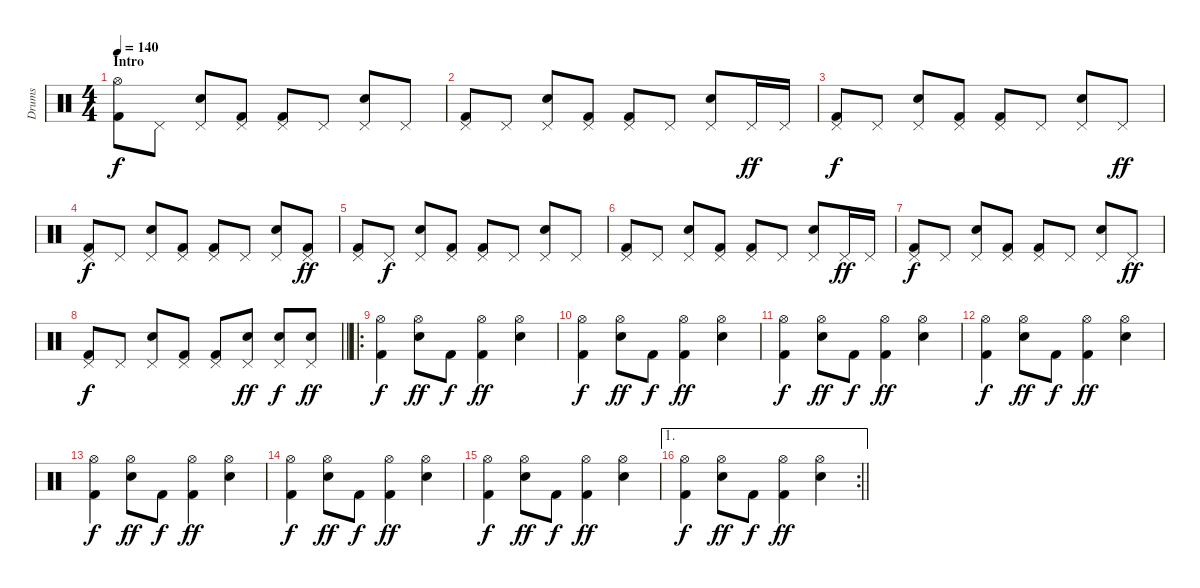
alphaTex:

\track ("Drums" "Drums") {instrument percussion}
\staff {score}
\articulation defaults
\ts (4 4)
\section ("" "Intro")
\tempo 140
\clef neutral
\ks c
("Hi-Hat (open)" "Kick (hit) 2").8{dy f} "Pedal Hi-Hat (hit)".8 ("Pedal Hi-Hat (hit)" "Snare (hit) 2").8 ("Pedal Hi-Hat (hit)" "Kick (hit) 2").8 ("Pedal Hi-Hat (hit)" "Kick (hit) 2").8 "Pedal Hi-Hat (hit)".8 ("Pedal Hi-Hat (hit)" "Snare (hit) 2").8 "Pedal Hi-Hat (hit)".8 |
("Pedal Hi-Hat (hit)" "Kick (hit) 2").8 "Pedal Hi-Hat (hit)".8 ("Pedal Hi-Hat (hit)" "Snare (hit) 2").8 ("Pedal Hi-Hat (hit)" "Kick (hit) 2").8 ("Pedal Hi-Hat (hit)" "Kick (hit) 2").8 "Pedal Hi-Hat (hit)".8 ("Pedal Hi-Hat (hit)" "Snare (hit) 2").8 "Pedal Hi-Hat (hit)".16{dy ff} "Pedal Hi-Hat (hit)".16 |
("Pedal Hi-Hat (hit)" "Kick (hit) 2").8{dy f} "Pedal Hi-Hat (hit)".8 ("Pedal Hi-Hat (hit)" "Snare (hit) 2").8 ("Pedal Hi-Hat (hit)" "Kick (hit) 2").8 ("Pedal Hi-Hat (hit)" "Kick (hit) 2").8 "Pedal Hi-Hat (hit)".8 ("Pedal Hi-Hat (hit)" "Snare (hit) 2").8 "Pedal Hi-Hat (hit)".8{dy ff} |
("Pedal Hi-Hat (hit)" "Kick (hit) 2").8{dy f} "Pedal Hi-Hat (hit)".8 ("Pedal Hi-Hat (hit)" "Snare (hit) 2").8 ("Pedal Hi-Hat (hit)" "Kick (hit) 2").8 ("Pedal Hi-Hat (hit)" "Kick (hit) 2").8 "Pedal Hi-Hat (hit)".8 ("Pedal Hi-Hat (hit)" "Snare (hit) 2").8 ("Pedal Hi-Hat (hit)" "Kick (hit) 2").8{dy ff} |
("Pedal Hi-Hat (hit)" "Kick (hit) 2").8 "Pedal Hi-Hat (hit)".8{dy f} ("Pedal Hi-Hat (hit)" "Snare (hit) 2").8 ("Pedal Hi-Hat (hit)" "Kick (hit) 2").8 ("Pedal Hi-Hat (hit)" "Kick (hit) 2").8 "Pedal Hi-Hat (hit)".8 ("Pedal Hi-Hat (hit)" "Snare (hit) 2").8 "Pedal Hi-Hat (hit)".8 |
("Pedal Hi-Hat (hit)" "Kick (hit) 2").8 "Pedal Hi-Hat (hit)".8 ("Pedal Hi-Hat (hit)" "Snare (hit) 2").8 ("Pedal Hi-Hat (hit)" "Kick (hit) 2").8 ("Pedal Hi-Hat (hit)" "Kick (hit) 2").8 "Pedal Hi-Hat (hit)".8 ("Pedal Hi-Hat (hit)" "Snare (hit) 2").8 "Pedal Hi-Hat (hit)".16{dy ff} "Pedal Hi-Hat (hit)".16 |
("Pedal Hi-Hat (hit)" "Kick (hit) 2").8{dy f} "Pedal Hi-Hat (hit)".8 ("Pedal Hi-Hat (hit)" "Snare (hit) 2").8 ("Pedal Hi-Hat (hit)" "Kick (hit) 2").8 ("Pedal Hi-Hat (hit)" "Kick (hit) 2").8 "Pedal Hi-Hat (hit)".8 ("Pedal Hi-Hat (hit)" "Snare (hit) 2").8 "Pedal Hi-Hat (hit)".8{dy ff} |
\barLineRight lightlight
("Pedal Hi-Hat (hit)" "Kick (hit) 2").8{dy f} "Pedal Hi-Hat (hit)".8 ("Pedal Hi-Hat (hit)" "Snare (hit) 2").8 ("Pedal Hi-Hat (hit)" "Kick (hit) 2").8 ("Pedal Hi-Hat (hit)" "Kick (hit) 2").8 ("Pedal Hi-Hat (hit)" "Snare (hit) 2").8{dy ff} ("Pedal Hi-Hat (hit)" "Snare (hit) 2").8{dy f} ("Pedal Hi-Hat (hit)" "Snare (hit) 2").8{dy ff} |
\ro
\section ("" "")
("Hi-Hat (open)" "Kick (hit) 2").4{dy f} ("Hi-Hat (open)" "Snare (hit) 2").8{dy ff} "Kick (hit) 2".8{dy f} ("Hi-Hat (open)" "Kick (hit) 2").4{dy ff} ("Hi-Hat (open)" "Snare (hit) 2").4 |
("Hi-Hat (open)" "Kick (hit) 2").4{dy f} ("Hi-Hat (open)" "Snare (hit) 2").8{dy ff} "Kick (hit) 2".8{dy f} ("Hi-Hat (open)" "Kick (hit) 2").4{dy ff} ("Hi-Hat (open)" "Snare (hit) 2").4 |
("Hi-Hat (open)" "Kick (hit) 2").4{dy f} ("Hi-Hat (open)" "Snare (hit) 2").8{dy ff} "Kick (hit) 2".8{dy f} ("Hi-Hat (open)" "Kick (hit) 2").4{dy ff} ("Hi-Hat (open)" "Snare (hit) 2").4 |
("Hi-Hat (open)" "Kick (hit) 2").4{dy f} ("Hi-Hat (open)" "Snare (hit) 2").8{dy ff} "Kick (hit) 2".8{dy f} ("Hi-Hat (open)" "Kick (hit) 2").4{dy ff} ("Hi-Hat (open)" "Snare (hit) 2").4 |
("Hi-Hat (open)" "Kick (hit) 2").4{dy f} ("Hi-Hat (open)" "Snare (hit) 2").8{dy ff} "Kick (hit) 2".8{dy f} ("Hi-Hat (open)" "Kick (hit) 2").4{dy ff} ("Hi-Hat (open)" "Snare (hit) 2").4 |
("Hi-Hat (open)" "Kick (hit) 2").4{dy f} ("Hi-Hat (open)" "Snare (hit) 2").8{dy ff} "Kick (hit) 2".8{dy f} ("Hi-Hat (open)" "Kick (hit) 2").4{dy ff} ("Hi-Hat (open)" "Snare (hit) 2").4 |
("Hi-Hat (open)" "Kick (hit) 2").4{dy f} ("Hi-Hat (open)" "Snare (hit) 2").8{dy ff} "Kick (hit) 2".8{dy f} ("Hi-Hat (open)" "Kick (hit) 2").4{dy ff} ("Hi-Hat (open)" "Snare (hit) 2").4 |
\ae 1
\rc 2
\barLineRight lightlight
("Hi-Hat (open)" "Kick (hit) 2").4{dy f} ("Hi-Hat (open)" "Snare (hit) 2").8{dy ff} "Kick (hit) 2".8{dy f} ("Hi-Hat (open)" "Kick (hit) 2").4{dy ff} ("Hi-Hat (open)" "Snare (hit) 2").4
